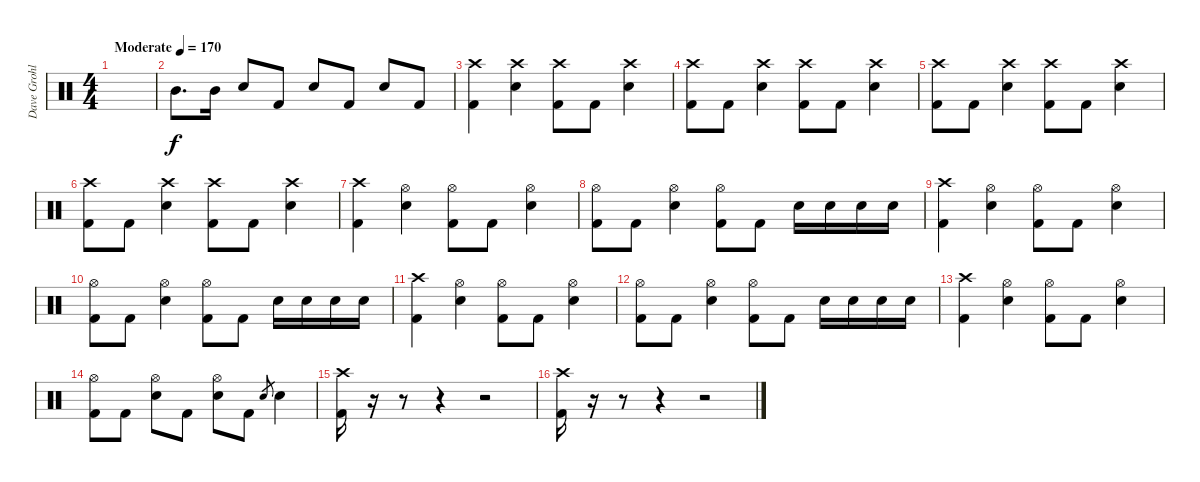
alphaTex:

\track ("Dave Grohl" "Dave Grohl") {instrument percussion}
\staff {score}
\articulation defaults
\ts (4 4)
\tempo (170 "Moderate")
\clef neutral
\ks c
|
"Mid Tom (hit)".8{d} "Mid Tom (hit)".16 "Snare (hit) 2".8 "Kick (hit) 2".8 "Snare (hit) 2".8 "Kick (hit) 2".8 "Snare (hit) 2".8 "Kick (hit) 2".8 |
("Crash high (hit)" "Kick (hit) 2").4 ("Crash high (hit)" "Snare (hit) 2").4 ("Crash high (hit)" "Kick (hit) 2").8 "Kick (hit) 2".8 ("Crash high (hit)" "Snare (hit) 2").4 |
("Crash high (hit)" "Kick (hit) 2").8 "Kick (hit) 2".8 ("Crash high (hit)" "Snare (hit) 2").4 ("Crash high (hit)" "Kick (hit) 2").8 "Kick (hit) 2".8 ("Crash high (hit)" "Snare (hit) 2").4 |
("Crash high (hit)" "Kick (hit) 2").8 "Kick (hit) 2".8 ("Crash high (hit)" "Snare (hit) 2").4 ("Crash high (hit)" "Kick (hit) 2").8 "Kick (hit) 2".8 ("Crash high (hit)" "Snare (hit) 2").4 |
("Crash high (hit)" "Kick (hit) 2").8 "Kick (hit) 2".8 ("Crash high (hit)" "Snare (hit) 2").4 ("Crash high (hit)" "Kick (hit) 2").8 "Kick (hit) 2".8 ("Crash high (hit)" "Snare (hit) 2").4 |
("Crash high (hit)" "Kick (hit) 2").4 ("Hi-Hat (open)" "Snare (hit) 2").4 ("Hi-Hat (open)" "Kick (hit) 2").8 "Kick (hit) 2".8 ("Hi-Hat (open)" "Snare (hit) 2").4 |
("Hi-Hat (open)" "Kick (hit) 2").8 "Kick (hit) 2".8 ("Hi-Hat (open)" "Snare (hit) 2").4 ("Hi-Hat (open)" "Kick (hit) 2").8 "Kick (hit) 2".8 "Snare (hit) 2".16 "Snare (hit) 2".16 "Snare (hit) 2".16 "Snare (hit) 2".16 |
("Crash high (hit)" "Kick (hit) 2").4 ("Hi-Hat (open)" "Snare (hit) 2").4 ("Hi-Hat (open)" "Kick (hit) 2").8 "Kick (hit) 2".8 ("Hi-Hat (open)" "Snare (hit) 2").4 |
("Hi-Hat (open)" "Kick (hit) 2").8 "Kick (hit) 2".8 ("Hi-Hat (open)" "Snare (hit) 2").4 ("Hi-Hat (open)" "Kick (hit) 2").8 "Kick (hit) 2".8 "Snare (hit) 2".16 "Snare (hit) 2".16 "Snare (hit) 2".16 "Snare (hit) 2".16 |
("Crash high (hit)" "Kick (hit) 2").4 ("Hi-Hat (open)" "Snare (hit) 2").4 ("Hi-Hat (open)" "Kick (hit) 2").8 "Kick (hit) 2".8 ("Hi-Hat (open)" "Snare (hit) 2").4 |
("Hi-Hat (open)" "Kick (hit) 2").8 "Kick (hit) 2".8 ("Hi-Hat (open)" "Snare (hit) 2").4 ("Hi-Hat (open)" "Kick (hit) 2").8 "Kick (hit) 2".8 "Snare (hit) 2".16 "Snare (hit) 2".16 "Snare (hit) 2".16 "Snare (hit) 2".16 |
("Crash high (hit)" "Kick (hit) 2").4 ("Hi-Hat (open)" "Snare (hit) 2").4 ("Hi-Hat (open)" "Kick (hit) 2").8 "Kick (hit) 2".8 ("Hi-Hat (open)" "Snare (hit) 2").4 |
("Hi-Hat (open)" "Kick (hit) 2").8 "Kick (hit) 2".8 ("Hi-Hat (open)" "Snare (hit) 2").8 "Kick (hit) 2".8 ("Hi-Hat (open)" "Snare (hit) 2").8 "Kick (hit) 2".8 "Snare (hit) 2".8{gr} "Snare (hit) 2".4 |
("Crash high (hit)" "Kick (hit) 2").16 r.16 r.8 r.4 r.2 |
("Crash high (hit)" "Kick (hit) 2").16 r.16 r.8 r.4 r.2
